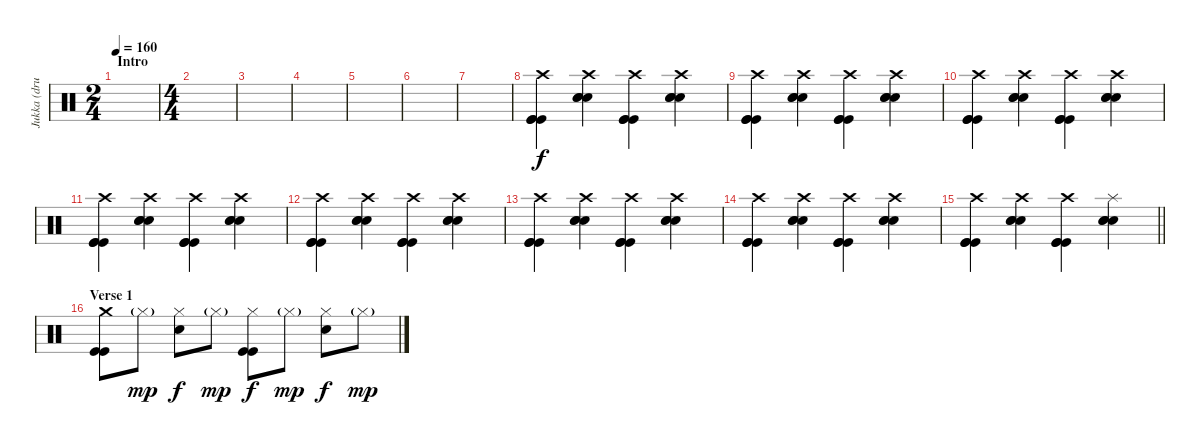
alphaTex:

\track ("Jukka (drums)" "Jukka (dru") {instrument percussion}
\staff {score}
\articulation defaults
\ts (2 4)
\section ("" "Intro")
\tempo 160
\clef neutral
\ks c
|
\ts (4 4)
|
|
|
|
|
|
("Crash high (hit)" "Kick (hit)" "Kick (hit)" "Kick (hit)").4 ("Crash high (hit)" "Electric Snare (hit)" "Electric Snare (hit)" "Electric Snare (hit)").4 ("Crash high (hit)" "Kick (hit)" "Kick (hit)" "Kick (hit)").4 ("Crash high (hit)" "Electric Snare (hit)" "Electric Snare (hit)" "Electric Snare (hit)").4 |
("Crash high (hit)" "Kick (hit)" "Kick (hit)" "Kick (hit)").4 ("Crash high (hit)" "Electric Snare (hit)" "Electric Snare (hit)" "Electric Snare (hit)").4 ("Crash high (hit)" "Kick (hit)" "Kick (hit)" "Kick (hit)").4 ("Crash high (hit)" "Electric Snare (hit)" "Electric Snare (hit)" "Electric Snare (hit)").4 |
("Crash high (hit)" "Kick (hit)" "Kick (hit)" "Kick (hit)").4 ("Crash high (hit)" "Electric Snare (hit)" "Electric Snare (hit)" "Electric Snare (hit)").4 ("Crash high (hit)" "Kick (hit)" "Kick (hit)" "Kick (hit)").4 ("Crash high (hit)" "Electric Snare (hit)" "Electric Snare (hit)" "Electric Snare (hit)").4 |
("Crash high (hit)" "Kick (hit)" "Kick (hit)" "Kick (hit)").4 ("Crash high (hit)" "Electric Snare (hit)" "Electric Snare (hit)" "Electric Snare (hit)").4 ("Crash high (hit)" "Kick (hit)" "Kick (hit)" "Kick (hit)").4 ("Crash high (hit)" "Electric Snare (hit)" "Electric Snare (hit)" "Electric Snare (hit)").4 |
("Crash high (hit)" "Kick (hit)" "Kick (hit)" "Kick (hit)").4 ("Crash high (hit)" "Electric Snare (hit)" "Electric Snare (hit)" "Electric Snare (hit)").4 ("Crash high (hit)" "Kick (hit)" "Kick (hit)" "Kick (hit)").4 ("Crash high (hit)" "Electric Snare (hit)" "Electric Snare (hit)" "Electric Snare (hit)").4 |
("Crash high (hit)" "Kick (hit)" "Kick (hit)" "Kick (hit)").4 ("Crash high (hit)" "Electric Snare (hit)" "Electric Snare (hit)" "Electric Snare (hit)").4 ("Crash high (hit)" "Kick (hit)" "Kick (hit)" "Kick (hit)").4 ("Crash high (hit)" "Electric Snare (hit)" "Electric Snare (hit)" "Electric Snare (hit)").4 |
("Crash high (hit)" "Kick (hit)" "Kick (hit)" "Kick (hit)").4 ("Crash high (hit)" "Electric Snare (hit)" "Electric Snare (hit)" "Electric Snare (hit)").4 ("Crash high (hit)" "Kick (hit)" "Kick (hit)" "Kick (hit)").4 ("Crash high (hit)" "Electric Snare (hit)" "Electric Snare (hit)" "Electric Snare (hit)").4 |
\barLineRight lightlight
("Crash high (hit)" "Kick (hit)" "Kick (hit)" "Kick (hit)").4 ("Crash high (hit)" "Electric Snare (hit)" "Electric Snare (hit)" "Electric Snare (hit)").4 ("Crash high (hit)" "Kick (hit)" "Kick (hit)" "Kick (hit)").4 ("Splash (hit)" "Electric Snare (hit)" "Electric Snare (hit)" "Electric Snare (hit)").4 |
\section ("" "Verse 1")
("Crash medium (hit)" "Kick (hit)" "Kick (hit)").8 "Hi-Hat (closed)"{g}.8{dy mp} ("Hi-Hat (closed)" "Electric Snare (hit)").8{dy f} "Hi-Hat (closed)"{g}.8{dy mp} ("Hi-Hat (closed)" "Kick (hit)" "Kick (hit)").8{dy f} "Hi-Hat (closed)"{g}.8{dy mp} ("Hi-Hat (closed)" "Electric Snare (hit)").8{dy f} "Hi-Hat (closed)"{g}.8{dy mp}
